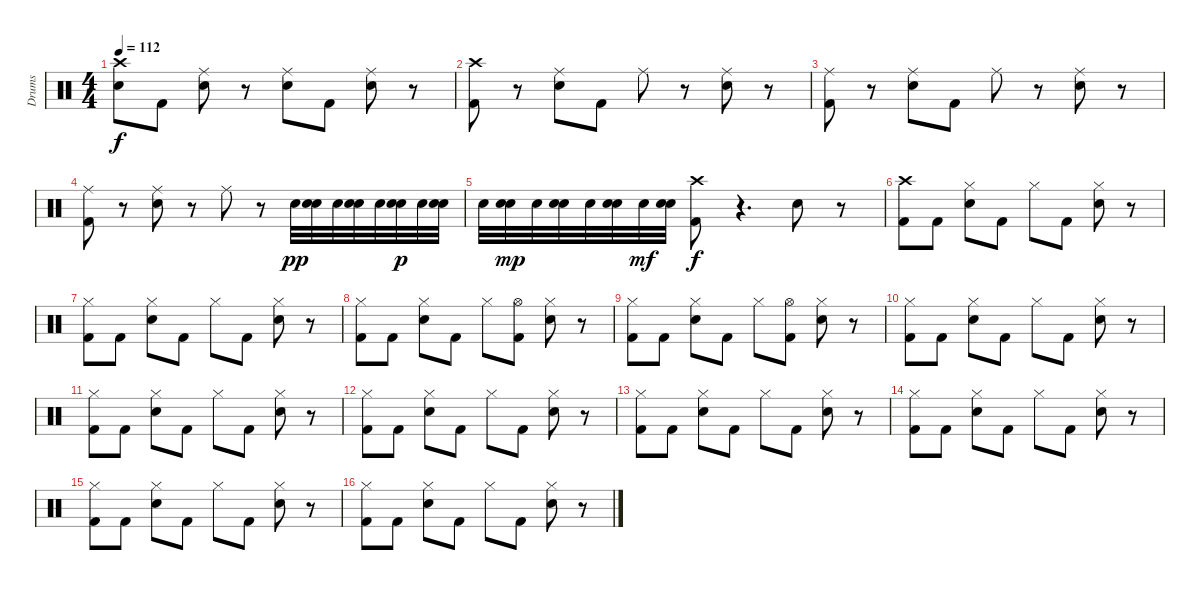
\track ("Drums" "Drums") {instrument percussion}
\staff {score}
\articulation defaults
\ts (4 4)
\tempo 112
\clef neutral
\ks c
("Crash high (hit)" "Snare (hit) 2").8{dy f} "Kick (hit) 2".8 ("Ride (middle)" "Snare (hit) 2").8 r.8 ("Snare (hit) 2" "Ride (middle)").8 "Kick (hit) 2".8 ("Snare (hit) 2" "Ride (middle)").8 r.8 |
("Crash high (hit)" "Kick (hit) 2").8 r.8 ("Ride (middle)" "Snare (hit) 2").8 "Kick (hit) 2".8 "Ride (middle)".8 r.8 ("Snare (hit) 2" "Ride (middle)").8 r.8 |
("Ride (middle)" "Kick (hit) 2").8 r.8 ("Ride (middle)" "Snare (hit) 2").8 "Kick (hit) 2".8 "Ride (middle)".8 r.8 ("Snare (hit) 2" "Ride (middle)").8 r.8 |
("Ride (middle)" "Kick (hit) 2").8 r.8 ("Ride (middle)" "Snare (hit) 2").8 r.8 "Ride (middle)".8 r.8 "Snare (hit) 2".32{dy pp} ("Snare (hit) 2" "Snare (hit) 2").32 "Snare (hit) 2".32 ("Snare (hit) 2" "Snare (hit) 2").32 "Snare (hit) 2".32 ("Snare (hit) 2" "Snare (hit) 2").32{dy p} "Snare (hit) 2".32 ("Snare (hit) 2" "Snare (hit) 2").32 |
"Snare (hit) 2".32 ("Snare (hit) 2" "Snare (hit) 2").32{dy mp} "Snare (hit) 2".32 ("Snare (hit) 2" "Snare (hit) 2").32 "Snare (hit) 2".32 ("Snare (hit) 2" "Snare (hit) 2").32 "Snare (hit) 2".32{dy mf} ("Snare (hit) 2" "Snare (hit) 2").32 ("Kick (hit) 2" "Crash high (hit)").8{dy f} r.4{d} "Snare (hit) 2".8 r.8 |
("Crash high (hit)" "Kick (hit) 2").8 "Kick (hit) 2".8 ("Hi-Hat (closed)" "Snare (hit) 2").8 "Kick (hit) 2".8 "Hi-Hat (closed)".8 "Kick (hit) 2".8 ("Snare (hit) 2" "Hi-Hat (closed)").8 r.8 |
("Hi-Hat (closed)" "Kick (hit) 2").8 "Kick (hit) 2".8 ("Hi-Hat (closed)" "Snare (hit) 2").8 "Kick (hit) 2".8 "Hi-Hat (closed)".8 "Kick (hit) 2".8 ("Snare (hit) 2" "Hi-Hat (closed)").8 r.8 |
("Hi-Hat (closed)" "Kick (hit) 2").8 "Kick (hit) 2".8 ("Hi-Hat (closed)" "Snare (hit) 2").8 "Kick (hit) 2".8 "Hi-Hat (closed)".8 ("Hi-Hat (open)" "Kick (hit) 2").8 ("Snare (hit) 2" "Hi-Hat (closed)").8 r.8 |
("Hi-Hat (closed)" "Kick (hit) 2").8 "Kick (hit) 2".8 ("Hi-Hat (closed)" "Snare (hit) 2").8 "Kick (hit) 2".8 "Hi-Hat (closed)".8 ("Hi-Hat (open)" "Kick (hit) 2").8 ("Snare (hit) 2" "Hi-Hat (closed)").8 r.8 |
("Hi-Hat (closed)" "Kick (hit) 2").8 "Kick (hit) 2".8 ("Hi-Hat (closed)" "Snare (hit) 2").8 "Kick (hit) 2".8 "Hi-Hat (closed)".8 "Kick (hit) 2".8 ("Snare (hit) 2" "Hi-Hat (closed)").8 r.8 |
("Hi-Hat (closed)" "Kick (hit) 2").8 "Kick (hit) 2".8 ("Hi-Hat (closed)" "Snare (hit) 2").8 "Kick (hit) 2".8 "Hi-Hat (closed)".8 "Kick (hit) 2".8 ("Snare (hit) 2" "Hi-Hat (closed)").8 r.8 |
("Hi-Hat (closed)" "Kick (hit) 2").8 "Kick (hit) 2".8 ("Hi-Hat (closed)" "Snare (hit) 2").8 "Kick (hit) 2".8 "Hi-Hat (closed)".8 "Kick (hit) 2".8 ("Snare (hit) 2" "Hi-Hat (closed)").8 r.8 |
("Hi-Hat (closed)" "Kick (hit) 2").8 "Kick (hit) 2".8 ("Hi-Hat (closed)" "Snare (hit) 2").8 "Kick (hit) 2".8 "Hi-Hat (closed)".8 "Kick (hit) 2".8 ("Snare (hit) 2" "Hi-Hat (closed)").8 r.8 |
("Hi-Hat (closed)" "Kick (hit) 2").8 "Kick (hit) 2".8 ("Hi-Hat (closed)" "Snare (hit) 2").8 "Kick (hit) 2".8 "Hi-Hat (closed)".8 "Kick (hit) 2".8 ("Snare (hit) 2" "Hi-Hat (closed)").8 r.8 |
("Hi-Hat (closed)" "Kick (hit) 2").8 "Kick (hit) 2".8 ("Hi-Hat (closed)" "Snare (hit) 2").8 "Kick (hit) 2".8 "Hi-Hat (closed)".8 "Kick (hit) 2".8 ("Snare (hit) 2" "Hi-Hat (closed)").8 r.8 |
("Hi-Hat (closed)" "Kick (hit) 2").8 "Kick (hit) 2".8 ("Hi-Hat (closed)" "Snare (hit) 2").8 "Kick (hit) 2".8 "Hi-Hat (closed)".8 "Kick (hit) 2".8 ("Snare (hit) 2" "Hi-Hat (closed)").8 r.8
